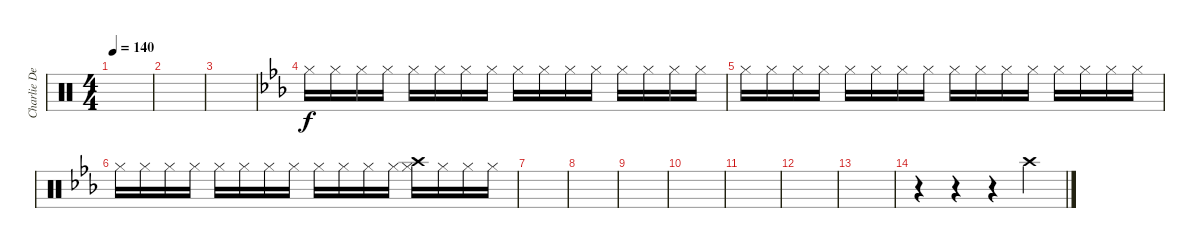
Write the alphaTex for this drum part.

\track ("Charlie Devil" "Charlie De") {instrument percussion}
\staff {score}
\articulation defaults
\ts (4 4)
\tempo 140
\clef neutral
\ks c
|
|
|
\ks eb "Hi-Hat (closed)".16 "Hi-Hat (closed)".16 "Hi-Hat (closed)".16 "Hi-Hat (closed)".16 "Hi-Hat (closed)".16 "Hi-Hat (closed)".16 "Hi-Hat (closed)".16 "Hi-Hat (closed)".16 "Hi-Hat (closed)".16 "Hi-Hat (closed)".16 "Hi-Hat (closed)".16 "Hi-Hat (closed)".16 "Hi-Hat (closed)".16 "Hi-Hat (closed)".16 "Hi-Hat (closed)".16 "Hi-Hat (closed)".16
|
"Hi-Hat (closed)".16 "Hi-Hat (closed)".16 "Hi-Hat (closed)".16 "Hi-Hat (closed)".16 "Hi-Hat (closed)".16 "Hi-Hat (closed)".16 "Hi-Hat (closed)".16 "Hi-Hat (closed)".16 "Hi-Hat (closed)".16 "Hi-Hat (closed)".16 "Hi-Hat (closed)".16 "Hi-Hat (closed)".16 "Hi-Hat (closed)".16 "Hi-Hat (closed)".16 "Hi-Hat (closed)".16 "Hi-Hat (closed)".16 |
"Hi-Hat (closed)".16 "Hi-Hat (closed)".16 "Hi-Hat (closed)".16 "Hi-Hat (closed)".16 "Hi-Hat (closed)".16 "Hi-Hat (closed)".16 "Hi-Hat (closed)".16 "Hi-Hat (closed)".16 "Hi-Hat (closed)".16 "Hi-Hat (closed)".16 "Hi-Hat (closed)".16 "Hi-Hat (closed)".16 ("Hi-Hat (closed)" "Crash high (hit)").16 "Hi-Hat (closed)".16 "Hi-Hat (closed)".16 "Hi-Hat (closed)".16 |
|
|
|
|
|
|
|
r.4 r.4 r.4 "Crash high (hit)".4
